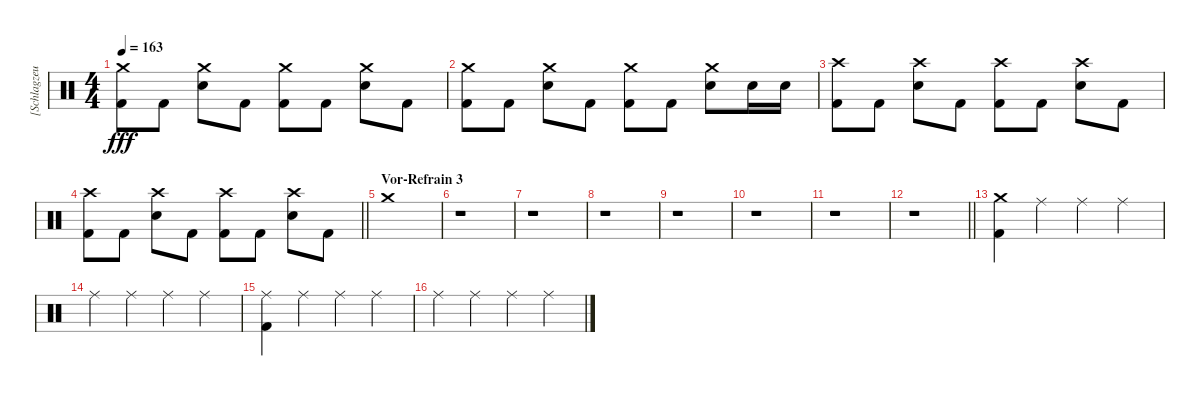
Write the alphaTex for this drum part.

\track ("[Schlagzeug]" "[Schlagzeu") {instrument percussion}
\staff {score}
\articulation defaults
\ts (4 4)
\tempo 163
\clef neutral
\ks c
("Crash medium (hit)" "Kick (hit) 2").8{dy fff} "Kick (hit) 2".8 ("Crash medium (hit)" "Electric Snare (hit)").8 "Kick (hit) 2".8 ("Crash medium (hit)" "Kick (hit) 2").8 "Kick (hit) 2".8 ("Crash medium (hit)" "Electric Snare (hit)").8 "Kick (hit) 2".8 |
("Crash medium (hit)" "Kick (hit) 2").8 "Kick (hit) 2".8 ("Crash medium (hit)" "Electric Snare (hit)").8 "Kick (hit) 2".8 ("Crash medium (hit)" "Kick (hit) 2").8 "Kick (hit) 2".8 ("Crash medium (hit)" "Electric Snare (hit)").8 "Electric Snare (hit)".16 "Electric Snare (hit)".16 |
("Crash high (hit)" "Kick (hit) 2").8 "Kick (hit) 2".8 ("Crash high (hit)" "Electric Snare (hit)").8 "Kick (hit) 2".8 ("Crash high (hit)" "Kick (hit) 2").8 "Kick (hit) 2".8 ("Crash high (hit)" "Electric Snare (hit)").8 "Kick (hit) 2".8 |
\barLineRight lightlight
("Crash high (hit)" "Kick (hit) 2").8 "Kick (hit) 2".8 ("Crash high (hit)" "Electric Snare (hit)").8 "Kick (hit) 2".8 ("Crash high (hit)" "Kick (hit) 2").8 "Kick (hit) 2".8 ("Crash high (hit)" "Electric Snare (hit)").8 "Kick (hit) 2".8 |
\section ("" "Vor-Refrain 3")
"Crash medium (hit)".1 |
r.1 |
r.1 |
r.1 |
r.1 |
r.1 |
r.1 |
\barLineRight lightlight
r.1 |
("Crash medium (hit)" "Kick (hit) 2").4 "Ride (middle)".4 "Ride (middle)".4 "Ride (middle)".4 |
"Ride (middle)".4 "Ride (middle)".4 "Ride (middle)".4 "Ride (middle)".4 |
("Ride (middle)" "Kick (hit) 2").4 "Ride (middle)".4 "Ride (middle)".4 "Ride (middle)".4 |
"Ride (middle)".4 "Ride (middle)".4 "Ride (middle)".4 "Ride (middle)".4
